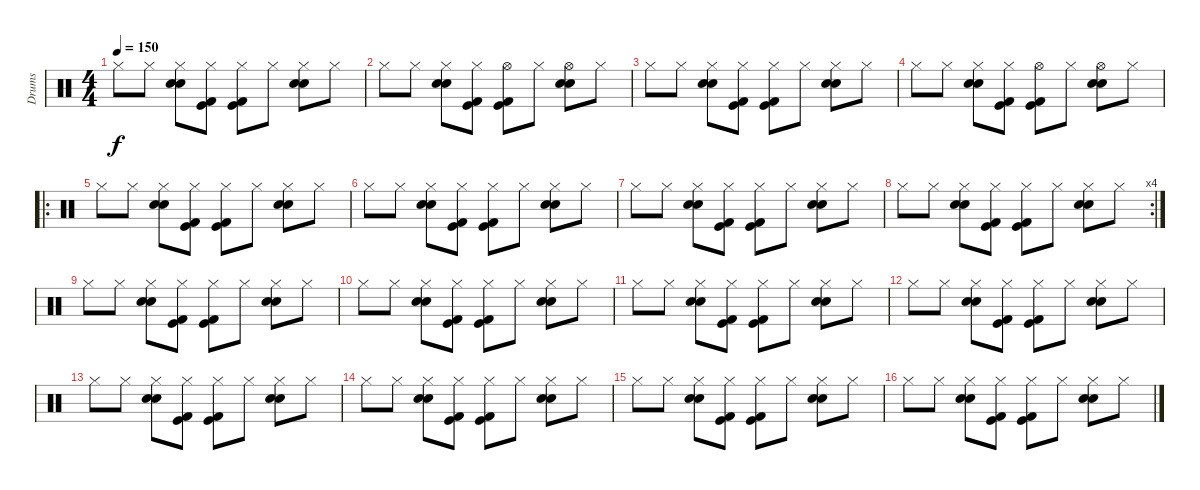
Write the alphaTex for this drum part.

\track ("Drums" "Drums") {instrument percussion}
\staff {score}
\articulation defaults
\ts (4 4)
\tempo 150
\clef neutral
\ks c "Hi-Hat (closed)".8{dy f} "Hi-Hat (closed)".8
("Hi-Hat (closed)" "Snare (hit) 2" "Electric Snare (hit)").8 ("Hi-Hat (closed)" "Kick (hit) 2" "Kick (hit)").8 ("Hi-Hat (closed)" "Kick (hit) 2" "Kick (hit)").8 "Hi-Hat (closed)".8 ("Hi-Hat (closed)" "Snare (hit) 2" "Electric Snare (hit)").8 "Hi-Hat (closed)".8 |
"Hi-Hat (closed)".8 "Hi-Hat (closed)".8 ("Hi-Hat (closed)" "Snare (hit) 2" "Electric Snare (hit)").8 ("Hi-Hat (closed)" "Kick (hit) 2" "Kick (hit)").8 ("Hi-Hat (open)" "Kick (hit) 2" "Kick (hit)").8 "Hi-Hat (closed)".8 ("Hi-Hat (open)" "Snare (hit) 2" "Electric Snare (hit)").8 "Hi-Hat (closed)".8 |
"Hi-Hat (closed)".8 "Hi-Hat (closed)".8 ("Hi-Hat (closed)" "Snare (hit) 2" "Electric Snare (hit)").8 ("Hi-Hat (closed)" "Kick (hit) 2" "Kick (hit)").8 ("Hi-Hat (closed)" "Kick (hit) 2" "Kick (hit)").8 "Hi-Hat (closed)".8 ("Hi-Hat (closed)" "Snare (hit) 2" "Electric Snare (hit)").8 "Hi-Hat (closed)".8 |
"Hi-Hat (closed)".8 "Hi-Hat (closed)".8 ("Hi-Hat (closed)" "Snare (hit) 2" "Electric Snare (hit)").8 ("Hi-Hat (closed)" "Kick (hit) 2" "Kick (hit)").8 ("Hi-Hat (open)" "Kick (hit) 2" "Kick (hit)").8 "Hi-Hat (closed)".8 ("Hi-Hat (open)" "Snare (hit) 2" "Electric Snare (hit)").8 "Hi-Hat (closed)".8 |
\ro "Hi-Hat (closed)".8 "Hi-Hat (closed)".8
("Hi-Hat (closed)" "Snare (hit) 2" "Electric Snare (hit)").8 ("Hi-Hat (closed)" "Kick (hit) 2" "Kick (hit)").8 ("Hi-Hat (closed)" "Kick (hit) 2" "Kick (hit)").8 "Hi-Hat (closed)".8 ("Hi-Hat (closed)" "Snare (hit) 2" "Electric Snare (hit)").8 "Hi-Hat (closed)".8 |
"Hi-Hat (closed)".8 "Hi-Hat (closed)".8 ("Hi-Hat (closed)" "Snare (hit) 2" "Electric Snare (hit)").8 ("Hi-Hat (closed)" "Kick (hit) 2" "Kick (hit)").8 ("Hi-Hat (closed)" "Kick (hit) 2" "Kick (hit)").8 "Hi-Hat (closed)".8 ("Hi-Hat (closed)" "Snare (hit) 2" "Electric Snare (hit)").8 "Hi-Hat (closed)".8 |
"Hi-Hat (closed)".8 "Hi-Hat (closed)".8 ("Hi-Hat (closed)" "Snare (hit) 2" "Electric Snare (hit)").8 ("Hi-Hat (closed)" "Kick (hit) 2" "Kick (hit)").8 ("Hi-Hat (closed)" "Kick (hit) 2" "Kick (hit)").8 "Hi-Hat (closed)".8 ("Hi-Hat (closed)" "Snare (hit) 2" "Electric Snare (hit)").8 "Hi-Hat (closed)".8 |
\rc 4 "Hi-Hat (closed)".8 "Hi-Hat (closed)".8
("Hi-Hat (closed)" "Snare (hit) 2" "Electric Snare (hit)").8 ("Hi-Hat (closed)" "Kick (hit) 2" "Kick (hit)").8 ("Hi-Hat (closed)" "Kick (hit) 2" "Kick (hit)").8 "Hi-Hat (closed)".8 ("Hi-Hat (closed)" "Snare (hit) 2" "Electric Snare (hit)").8 "Hi-Hat (closed)".8 |
"Hi-Hat (closed)".8 "Hi-Hat (closed)".8 ("Hi-Hat (closed)" "Snare (hit) 2" "Electric Snare (hit)").8 ("Hi-Hat (closed)" "Kick (hit) 2" "Kick (hit)").8 ("Hi-Hat (closed)" "Kick (hit) 2" "Kick (hit)").8 "Hi-Hat (closed)".8 ("Hi-Hat (closed)" "Snare (hit) 2" "Electric Snare (hit)").8 "Hi-Hat (closed)".8 |
"Hi-Hat (closed)".8 "Hi-Hat (closed)".8 ("Hi-Hat (closed)" "Snare (hit) 2" "Electric Snare (hit)").8 ("Hi-Hat (closed)" "Kick (hit) 2" "Kick (hit)").8 ("Hi-Hat (closed)" "Kick (hit) 2" "Kick (hit)").8 "Hi-Hat (closed)".8 ("Hi-Hat (closed)" "Snare (hit) 2" "Electric Snare (hit)").8 "Hi-Hat (closed)".8 |
"Hi-Hat (closed)".8 "Hi-Hat (closed)".8 ("Hi-Hat (closed)" "Snare (hit) 2" "Electric Snare (hit)").8 ("Hi-Hat (closed)" "Kick (hit) 2" "Kick (hit)").8 ("Hi-Hat (closed)" "Kick (hit) 2" "Kick (hit)").8 "Hi-Hat (closed)".8 ("Hi-Hat (closed)" "Snare (hit) 2" "Electric Snare (hit)").8 "Hi-Hat (closed)".8 |
"Hi-Hat (closed)".8 "Hi-Hat (closed)".8 ("Hi-Hat (closed)" "Snare (hit) 2" "Electric Snare (hit)").8 ("Hi-Hat (closed)" "Kick (hit) 2" "Kick (hit)").8 ("Hi-Hat (closed)" "Kick (hit) 2" "Kick (hit)").8 "Hi-Hat (closed)".8 ("Hi-Hat (closed)" "Snare (hit) 2" "Electric Snare (hit)").8 "Hi-Hat (closed)".8 |
"Hi-Hat (closed)".8 "Hi-Hat (closed)".8 ("Hi-Hat (closed)" "Snare (hit) 2" "Electric Snare (hit)").8 ("Hi-Hat (closed)" "Kick (hit) 2" "Kick (hit)").8 ("Hi-Hat (closed)" "Kick (hit) 2" "Kick (hit)").8 "Hi-Hat (closed)".8 ("Hi-Hat (closed)" "Snare (hit) 2" "Electric Snare (hit)").8 "Hi-Hat (closed)".8 |
"Hi-Hat (closed)".8 "Hi-Hat (closed)".8 ("Hi-Hat (closed)" "Snare (hit) 2" "Electric Snare (hit)").8 ("Hi-Hat (closed)" "Kick (hit) 2" "Kick (hit)").8 ("Hi-Hat (closed)" "Kick (hit) 2" "Kick (hit)").8 "Hi-Hat (closed)".8 ("Hi-Hat (closed)" "Snare (hit) 2" "Electric Snare (hit)").8 "Hi-Hat (closed)".8 |
"Hi-Hat (closed)".8 "Hi-Hat (closed)".8 ("Hi-Hat (closed)" "Snare (hit) 2" "Electric Snare (hit)").8 ("Hi-Hat (closed)" "Kick (hit) 2" "Kick (hit)").8 ("Hi-Hat (closed)" "Kick (hit) 2" "Kick (hit)").8 "Hi-Hat (closed)".8 ("Hi-Hat (closed)" "Snare (hit) 2" "Electric Snare (hit)").8 "Hi-Hat (closed)".8 |
"Hi-Hat (closed)".8 "Hi-Hat (closed)".8 ("Hi-Hat (closed)" "Snare (hit) 2" "Electric Snare (hit)").8 ("Hi-Hat (closed)" "Kick (hit) 2" "Kick (hit)").8 ("Hi-Hat (closed)" "Kick (hit) 2" "Kick (hit)").8 "Hi-Hat (closed)".8 ("Hi-Hat (closed)" "Snare (hit) 2" "Electric Snare (hit)").8 "Hi-Hat (closed)".8
